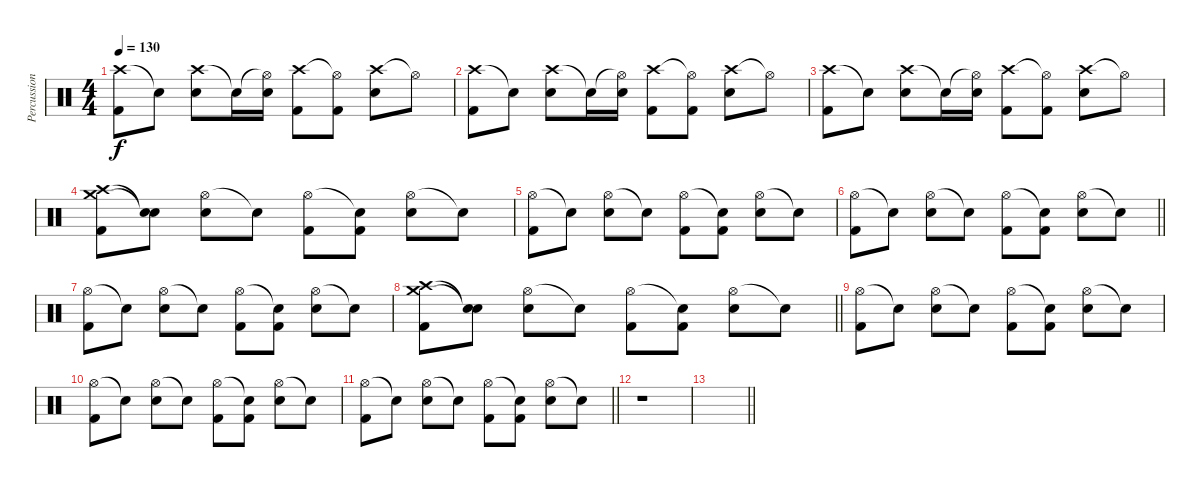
\track ("Percussion" "Percussion") {instrument percussion}
\staff {score}
\articulation defaults
\ts (4 4)
\tempo 130
\clef neutral
\ks c
("Crash high (hit)" "Kick (hit) 2").8{dy f} "Snare (hit)"{t}.8 ("Crash high (hit)" "Electric Snare (hit)").8 "Snare (hit)"{t}.16 ("Hi-Hat (open)"{t} "Electric Snare (hit)").16 ("Crash high (hit)" "Kick (hit) 2").8 ("Hi-Hat (open)"{t} "Kick (hit) 2").8 ("Crash high (hit)" "Electric Snare (hit)").8 "Hi-Hat (open)"{t}.8 |
("Crash high (hit)" "Kick (hit) 2").8 "Snare (hit)"{t}.8 ("Crash high (hit)" "Electric Snare (hit)").8 "Snare (hit)"{t}.16 ("Hi-Hat (open)"{t} "Electric Snare (hit)").16 ("Crash high (hit)" "Kick (hit) 2").8 ("Hi-Hat (open)"{t} "Kick (hit) 2").8 ("Crash high (hit)" "Electric Snare (hit)").8 "Hi-Hat (open)"{t}.8 |
("Crash high (hit)" "Kick (hit) 2").8 "Snare (hit)"{t}.8 ("Crash high (hit)" "Electric Snare (hit)").8 "Snare (hit)"{t}.16 ("Hi-Hat (open)"{t} "Electric Snare (hit)").16 ("Crash high (hit)" "Kick (hit) 2").8 ("Hi-Hat (open)"{t} "Kick (hit) 2").8 ("Crash high (hit)" "Electric Snare (hit)").8 "Hi-Hat (open)"{t}.8 |
("Crash medium (hit)" "Crash high (hit)" "Kick (hit) 2").8 ("Snare (hit)"{t} "Snare (hit)"{t}).8 ("Hi-Hat (open)" "Electric Snare (hit)").8 "Snare (hit)"{t}.8 ("Hi-Hat (open)" "Kick (hit) 2").8 ("Snare (hit)"{t} "Kick (hit) 2").8 ("Hi-Hat (open)" "Electric Snare (hit)").8 "Snare (hit)"{t}.8 |
("Hi-Hat (open)" "Kick (hit) 2").8 "Snare (hit)"{t}.8 ("Hi-Hat (open)" "Electric Snare (hit)").8 "Snare (hit)"{t}.8 ("Hi-Hat (open)" "Kick (hit) 2").8 ("Snare (hit)"{t} "Kick (hit) 2").8 ("Hi-Hat (open)" "Electric Snare (hit)").8 "Snare (hit)"{t}.8 |
\barLineRight lightlight
("Hi-Hat (open)" "Kick (hit) 2").8 "Snare (hit)"{t}.8 ("Hi-Hat (open)" "Electric Snare (hit)").8 "Snare (hit)"{t}.8 ("Hi-Hat (open)" "Kick (hit) 2").8 ("Snare (hit)"{t} "Kick (hit) 2").8 ("Hi-Hat (open)" "Electric Snare (hit)").8 "Snare (hit)"{t}.8 |
("Hi-Hat (open)" "Kick (hit) 2").8 "Snare (hit)"{t}.8 ("Hi-Hat (open)" "Electric Snare (hit)").8 "Snare (hit)"{t}.8 ("Hi-Hat (open)" "Kick (hit) 2").8 ("Snare (hit)"{t} "Kick (hit) 2").8 ("Hi-Hat (open)" "Electric Snare (hit)").8 "Snare (hit)"{t}.8 |
\barLineRight lightlight
("Crash medium (hit)" "Crash high (hit)" "Kick (hit) 2").8 ("Snare (hit)"{t} "Snare (hit)"{t}).8 ("Hi-Hat (open)" "Electric Snare (hit)").8 "Snare (hit)"{t}.8 ("Hi-Hat (open)" "Kick (hit) 2").8 ("Snare (hit)"{t} "Kick (hit) 2").8 ("Hi-Hat (open)" "Electric Snare (hit)").8 "Snare (hit)"{t}.8 |
("Hi-Hat (open)" "Kick (hit) 2").8 "Snare (hit)"{t}.8 ("Hi-Hat (open)" "Electric Snare (hit)").8 "Snare (hit)"{t}.8 ("Hi-Hat (open)" "Kick (hit) 2").8 ("Snare (hit)"{t} "Kick (hit) 2").8 ("Hi-Hat (open)" "Electric Snare (hit)").8 "Snare (hit)"{t}.8 |
("Hi-Hat (open)" "Kick (hit) 2").8 "Snare (hit)"{t}.8 ("Hi-Hat (open)" "Electric Snare (hit)").8 "Snare (hit)"{t}.8 ("Hi-Hat (open)" "Kick (hit) 2").8 ("Snare (hit)"{t} "Kick (hit) 2").8 ("Hi-Hat (open)" "Electric Snare (hit)").8 "Snare (hit)"{t}.8 |
\barLineRight lightlight
("Hi-Hat (open)" "Kick (hit) 2").8 "Snare (hit)"{t}.8 ("Hi-Hat (open)" "Electric Snare (hit)").8 "Snare (hit)"{t}.8 ("Hi-Hat (open)" "Kick (hit) 2").8 ("Snare (hit)"{t} "Kick (hit) 2").8 ("Hi-Hat (open)" "Electric Snare (hit)").8 "Snare (hit)"{t}.8 |
r.1 |
\barLineRight lightlight
